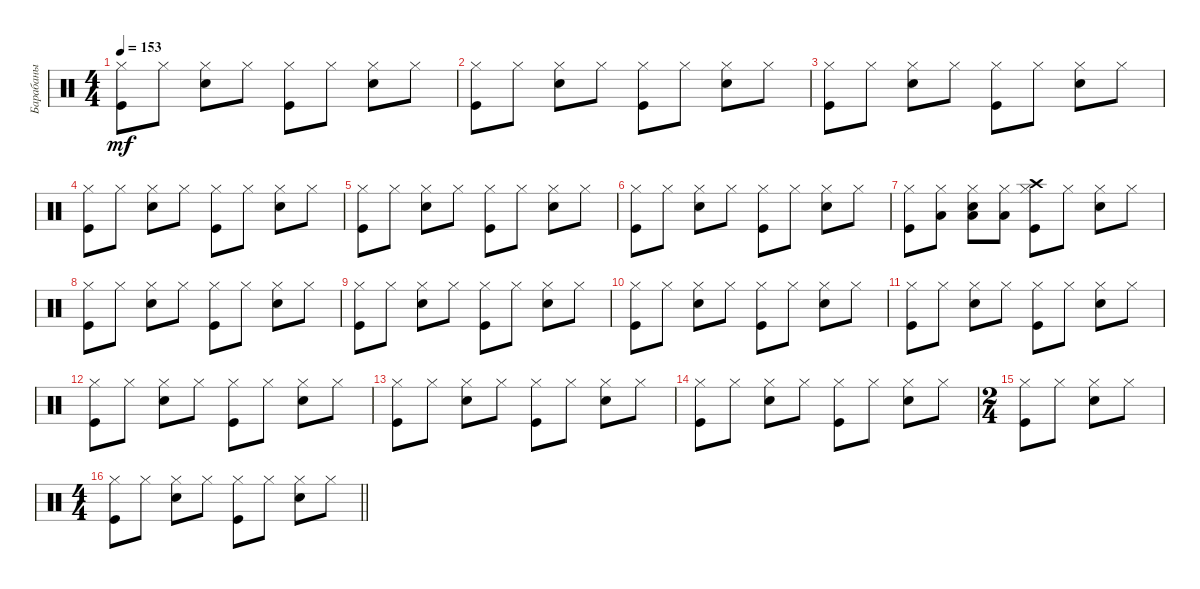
\track ("Барабаны" "Барабаны") {instrument percussion}
\staff {score}
\articulation defaults
\ts (4 4)
\tempo 153
\clef neutral
\ks c
("Kick (hit)" "Hi-Hat (closed)").8{dy mf} "Hi-Hat (closed)".8 ("Snare (hit) 2" "Hi-Hat (closed)").8 "Hi-Hat (closed)".8 ("Kick (hit)" "Hi-Hat (closed)").8 "Hi-Hat (closed)".8 ("Snare (hit) 2" "Hi-Hat (closed)").8 "Hi-Hat (closed)".8 |
("Kick (hit)" "Hi-Hat (closed)").8 "Hi-Hat (closed)".8 ("Snare (hit) 2" "Hi-Hat (closed)").8 "Hi-Hat (closed)".8 ("Kick (hit)" "Hi-Hat (closed)").8 "Hi-Hat (closed)".8 ("Snare (hit) 2" "Hi-Hat (closed)").8 "Hi-Hat (closed)".8 |
("Kick (hit)" "Hi-Hat (closed)").8 "Hi-Hat (closed)".8 ("Snare (hit) 2" "Hi-Hat (closed)").8 "Hi-Hat (closed)".8 ("Kick (hit)" "Hi-Hat (closed)").8 "Hi-Hat (closed)".8 ("Snare (hit) 2" "Hi-Hat (closed)").8 "Hi-Hat (closed)".8 |
("Kick (hit)" "Hi-Hat (closed)").8 "Hi-Hat (closed)".8 ("Snare (hit) 2" "Hi-Hat (closed)").8 "Hi-Hat (closed)".8 ("Kick (hit)" "Hi-Hat (closed)").8 "Hi-Hat (closed)".8 ("Snare (hit) 2" "Hi-Hat (closed)").8 "Hi-Hat (closed)".8 |
("Kick (hit)" "Hi-Hat (closed)").8 "Hi-Hat (closed)".8 ("Snare (hit) 2" "Hi-Hat (closed)").8 "Hi-Hat (closed)".8 ("Kick (hit)" "Hi-Hat (closed)").8 "Hi-Hat (closed)".8 ("Snare (hit) 2" "Hi-Hat (closed)").8 "Hi-Hat (closed)".8 |
("Kick (hit)" "Hi-Hat (closed)").8 "Hi-Hat (closed)".8 ("Snare (hit) 2" "Hi-Hat (closed)").8 "Hi-Hat (closed)".8 ("Kick (hit)" "Hi-Hat (closed)").8 "Hi-Hat (closed)".8 ("Snare (hit) 2" "Hi-Hat (closed)").8 "Hi-Hat (closed)".8 |
("Kick (hit)" "Hi-Hat (closed)").8 ("Hi-Hat (closed)" "Low Tom (hit)").8 ("Snare (hit) 2" "Hi-Hat (closed)" "Low Tom (hit)").8 ("Hi-Hat (closed)" "Low Tom (hit)").8 ("Kick (hit)" "Hi-Hat (closed)" "Crash high (hit)").8 "Hi-Hat (closed)".8 ("Snare (hit) 2" "Hi-Hat (closed)").8 "Hi-Hat (closed)".8 |
("Kick (hit)" "Hi-Hat (closed)").8 "Hi-Hat (closed)".8 ("Snare (hit) 2" "Hi-Hat (closed)").8 "Hi-Hat (closed)".8 ("Kick (hit)" "Hi-Hat (closed)").8 "Hi-Hat (closed)".8 ("Snare (hit) 2" "Hi-Hat (closed)").8 "Hi-Hat (closed)".8 |
("Kick (hit)" "Hi-Hat (closed)").8 "Hi-Hat (closed)".8 ("Snare (hit) 2" "Hi-Hat (closed)").8 "Hi-Hat (closed)".8 ("Kick (hit)" "Hi-Hat (closed)").8 "Hi-Hat (closed)".8 ("Snare (hit) 2" "Hi-Hat (closed)").8 "Hi-Hat (closed)".8 |
("Kick (hit)" "Hi-Hat (closed)").8 "Hi-Hat (closed)".8 ("Snare (hit) 2" "Hi-Hat (closed)").8 "Hi-Hat (closed)".8 ("Kick (hit)" "Hi-Hat (closed)").8 "Hi-Hat (closed)".8 ("Snare (hit) 2" "Hi-Hat (closed)").8 "Hi-Hat (closed)".8 |
("Kick (hit)" "Hi-Hat (closed)").8 "Hi-Hat (closed)".8 ("Snare (hit) 2" "Hi-Hat (closed)").8 "Hi-Hat (closed)".8 ("Kick (hit)" "Hi-Hat (closed)").8 "Hi-Hat (closed)".8 ("Snare (hit) 2" "Hi-Hat (closed)").8 "Hi-Hat (closed)".8 |
("Kick (hit)" "Hi-Hat (closed)").8 "Hi-Hat (closed)".8 ("Snare (hit) 2" "Hi-Hat (closed)").8 "Hi-Hat (closed)".8 ("Kick (hit)" "Hi-Hat (closed)").8 "Hi-Hat (closed)".8 ("Snare (hit) 2" "Hi-Hat (closed)").8 "Hi-Hat (closed)".8 |
("Kick (hit)" "Hi-Hat (closed)").8 "Hi-Hat (closed)".8 ("Snare (hit) 2" "Hi-Hat (closed)").8 "Hi-Hat (closed)".8 ("Kick (hit)" "Hi-Hat (closed)").8 "Hi-Hat (closed)".8 ("Snare (hit) 2" "Hi-Hat (closed)").8 "Hi-Hat (closed)".8 |
("Kick (hit)" "Hi-Hat (closed)").8 "Hi-Hat (closed)".8 ("Snare (hit) 2" "Hi-Hat (closed)").8 "Hi-Hat (closed)".8 ("Kick (hit)" "Hi-Hat (closed)").8 "Hi-Hat (closed)".8 ("Snare (hit) 2" "Hi-Hat (closed)").8 "Hi-Hat (closed)".8 |
\ts (2 4)
("Kick (hit)" "Hi-Hat (closed)").8 "Hi-Hat (closed)".8 ("Snare (hit) 2" "Hi-Hat (closed)").8 "Hi-Hat (closed)".8 |
\ts (4 4)
\barLineRight lightlight
("Kick (hit)" "Hi-Hat (closed)").8 "Hi-Hat (closed)".8 ("Snare (hit) 2" "Hi-Hat (closed)").8 "Hi-Hat (closed)".8 ("Kick (hit)" "Hi-Hat (closed)").8 "Hi-Hat (closed)".8 ("Snare (hit) 2" "Hi-Hat (closed)").8 "Hi-Hat (closed)".8
